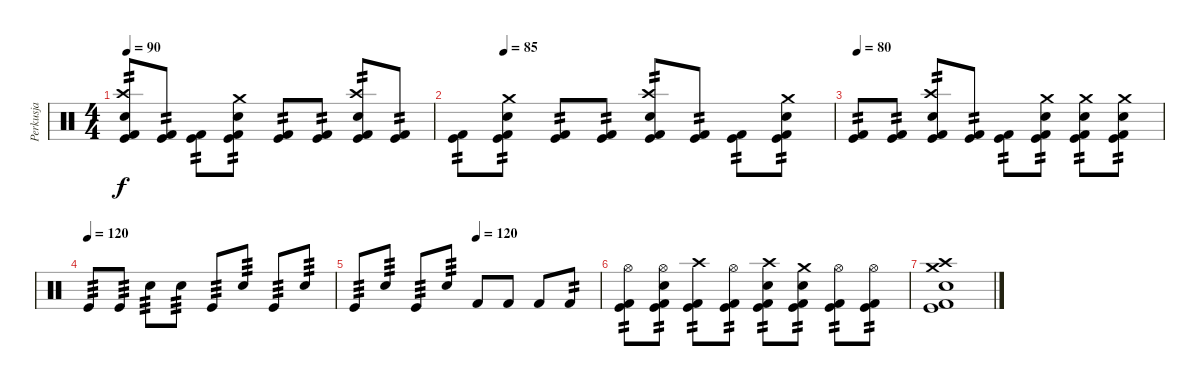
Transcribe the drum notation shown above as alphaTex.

\track ("Perkusja" "Perkusja") {instrument percussion}
\staff {score}
\articulation defaults
\ts (4 4)
\tempo 90
\clef neutral
\ks c
("Kick (hit) 2" "Crash high (hit)" "Kick (hit)" "Snare (hit) 2").8{tp 2 dy f} ("Kick (hit) 2" "Kick (hit)").8{tp 2} ("Kick (hit) 2" "Kick (hit)").8{tp 2} ("Kick (hit) 2" "Crash medium (hit)" "Kick (hit)" "Snare (hit) 2").8{tp 2} ("Kick (hit) 2" "Kick (hit)").8{tp 2} ("Kick (hit) 2" "Kick (hit)").8{tp 2} ("Kick (hit) 2" "Crash high (hit)" "Kick (hit)" "Snare (hit) 2").8{tp 2} ("Kick (hit) 2" "Kick (hit)").8{tp 2} |
\tempo (85 0.125)
("Kick (hit) 2" "Kick (hit)").8{tp 2} ("Kick (hit) 2" "Crash medium (hit)" "Kick (hit)" "Snare (hit) 2").8{tp 2} ("Kick (hit) 2" "Kick (hit)").8{tp 2} ("Kick (hit) 2" "Kick (hit)").8{tp 2} ("Kick (hit) 2" "Crash high (hit)" "Kick (hit)" "Snare (hit) 2").8{tp 2} ("Kick (hit) 2" "Kick (hit)").8{tp 2} ("Kick (hit) 2" "Kick (hit)").8{tp 2} ("Kick (hit) 2" "Crash medium (hit)" "Kick (hit)" "Snare (hit) 2").8{tp 2} |
\tempo 80
("Kick (hit) 2" "Kick (hit)").8{tp 2} ("Kick (hit) 2" "Kick (hit)").8{tp 2} ("Kick (hit) 2" "Crash high (hit)" "Kick (hit)" "Snare (hit) 2").8{tp 2} ("Kick (hit) 2" "Kick (hit)").8{tp 2} ("Kick (hit) 2" "Kick (hit)").8{tp 2} ("Kick (hit) 2" "Crash medium (hit)" "Kick (hit)" "Snare (hit) 2").8{tp 2} ("Kick (hit) 2" "Crash medium (hit)" "Kick (hit)" "Snare (hit) 2").8{tp 2} ("Kick (hit) 2" "Crash medium (hit)" "Kick (hit)" "Snare (hit) 2").8{tp 2} |
\tempo (120)
"Kick (hit)".8{tp 3} "Kick (hit)".8{tp 3} "Snare (hit) 2".8{tp 3} "Snare (hit) 2".8{tp 3} "Kick (hit)".8{tp 3} "Snare (hit) 2".8{tp 3} "Kick (hit)".8{tp 3} "Snare (hit) 2".8{tp 3} |
\tempo (120 0.5)
"Kick (hit)".8{tp 3} "Snare (hit) 2".8{tp 3} "Kick (hit)".8{tp 3} "Snare (hit) 2".8{tp 3} "Kick (hit) 2".8 "Kick (hit) 2".8 "Kick (hit) 2".8 "Kick (hit) 2".8{tp 2} |
("Hi-Hat (open)" "Kick (hit)" "Kick (hit) 2").8{tp 2} ("Hi-Hat (open)" "Snare (hit) 2" "Kick (hit)" "Kick (hit) 2").8{tp 2} ("Crash high (hit)" "Kick (hit)" "Kick (hit) 2").8{tp 2} ("Hi-Hat (open)" "Kick (hit)" "Kick (hit) 2").8{tp 2} ("Crash high (hit)" "Snare (hit) 2" "Kick (hit)" "Kick (hit) 2").8{tp 2} ("Crash medium (hit)" "Snare (hit) 2" "Kick (hit)" "Kick (hit) 2").8{tp 2} ("Hi-Hat (open)" "Kick (hit)" "Kick (hit) 2").8{tp 2} ("Hi-Hat (open)" "Kick (hit)" "Kick (hit) 2").8{tp 2} |
("Crash high (hit)" "Crash medium (hit)" "Snare (hit) 2" "Kick (hit)" "Kick (hit) 2").1
